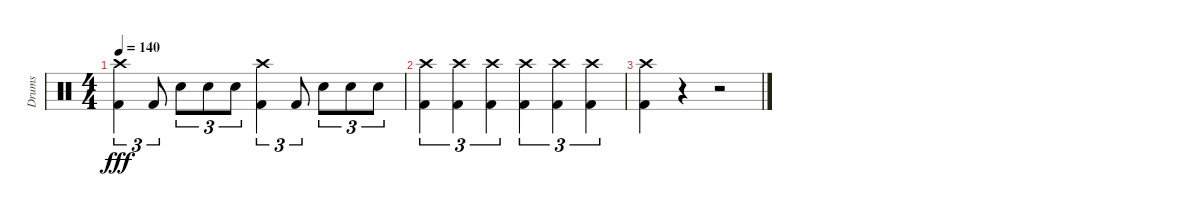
\track ("Drums" "Drums") {instrument percussion}
\staff {score}
\articulation defaults
\ts (4 4)
\tempo 140
\clef neutral
\ks c
("Kick (hit) 2" "Crash high (hit)").4{tu (3 2) dy fff} "Kick (hit) 2".8{tu (3 2)} "Snare (hit) 2".8{tu (3 2)} "Snare (hit) 2".8{tu (3 2)} "Snare (hit) 2".8{tu (3 2)} ("Kick (hit) 2" "Crash high (hit)").4{tu (3 2)} "Kick (hit) 2".8{tu (3 2)} "Snare (hit) 2".8{tu (3 2)} "Snare (hit) 2".8{tu (3 2)} "Snare (hit) 2".8{tu (3 2)} |
("Kick (hit) 2" "Crash high (hit)").4{tu (3 2)} ("Kick (hit) 2" "Crash high (hit)").4{tu (3 2)} ("Kick (hit) 2" "Crash high (hit)").4{tu (3 2)} ("Kick (hit) 2" "Crash high (hit)").4{tu (3 2)} ("Kick (hit) 2" "Crash high (hit)").4{tu (3 2)} ("Kick (hit) 2" "Crash high (hit)").4{tu (3 2)} |
("Kick (hit) 2" "Crash high (hit)").4 r.4 r.2
